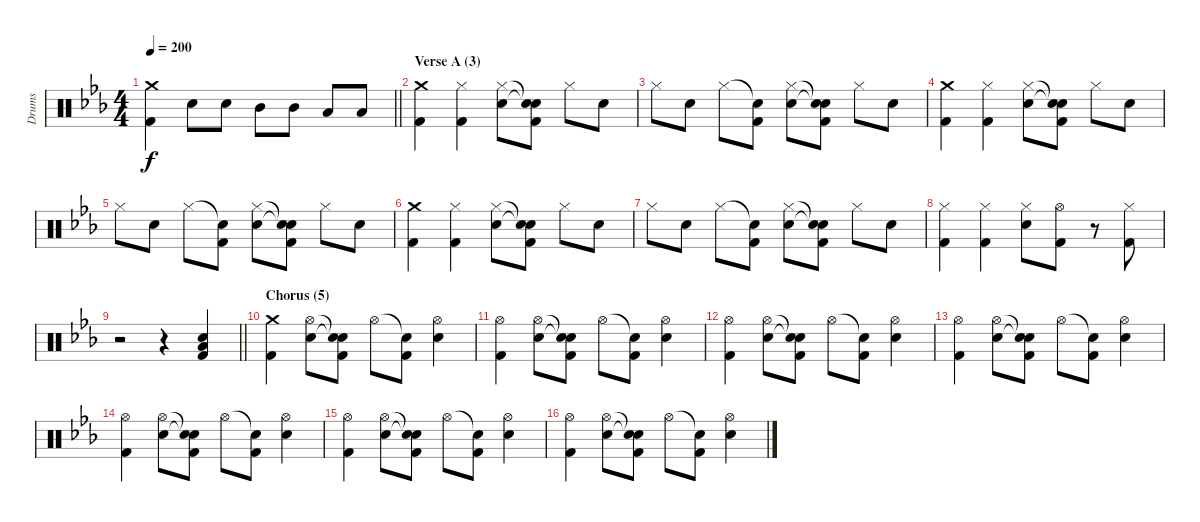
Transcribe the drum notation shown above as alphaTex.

\track ("Drums" "Drums") {instrument percussion}
\staff {score}
\articulation defaults
\ts (4 4)
\tempo 200
\clef neutral
\barLineRight lightlight
\ks cminor
("Crash medium (hit)" "Kick (hit) 2").4{dy f} "Electric Snare (hit)".8 "Electric Snare (hit)".8 "Mid Tom (hit)".8 "Mid Tom (hit)".8 "Low Floor Tom (hit)".8 "Low Floor Tom (hit)".8 |
\section ("" "Verse A (3)")
("Crash medium (hit)" "Kick (hit) 2").4 ("Hi-Hat (closed)" "Kick (hit) 2").4 ("Hi-Hat (closed)" "Electric Snare (hit)").8 ("Snare (hit)"{t} "Snare (hit)"{t} "Kick (hit) 2").8 "Hi-Hat (closed)".8 "Electric Snare (hit)".8 |
"Hi-Hat (closed)".8 "Electric Snare (hit)".8 "Hi-Hat (closed)".8 ("Snare (hit)"{t} "Kick (hit) 2").8 ("Hi-Hat (closed)" "Electric Snare (hit)").8 ("Snare (hit)"{t} "Snare (hit)"{t} "Kick (hit) 2").8 "Hi-Hat (closed)".8 "Electric Snare (hit)".8 |
("Crash medium (hit)" "Kick (hit) 2").4 ("Hi-Hat (closed)" "Kick (hit) 2").4 ("Hi-Hat (closed)" "Electric Snare (hit)").8 ("Snare (hit)"{t} "Snare (hit)"{t} "Kick (hit) 2").8 "Hi-Hat (closed)".8 "Electric Snare (hit)".8 |
"Hi-Hat (closed)".8 "Electric Snare (hit)".8 "Hi-Hat (closed)".8 ("Snare (hit)"{t} "Kick (hit) 2").8 ("Hi-Hat (closed)" "Electric Snare (hit)").8 ("Snare (hit)"{t} "Snare (hit)"{t} "Kick (hit) 2").8 "Hi-Hat (closed)".8 "Electric Snare (hit)".8 |
("Crash medium (hit)" "Kick (hit) 2").4 ("Hi-Hat (closed)" "Kick (hit) 2").4 ("Hi-Hat (closed)" "Electric Snare (hit)").8 ("Snare (hit)"{t} "Snare (hit)"{t} "Kick (hit) 2").8 "Hi-Hat (closed)".8 "Electric Snare (hit)".8 |
"Hi-Hat (closed)".8 "Electric Snare (hit)".8 "Hi-Hat (closed)".8 ("Snare (hit)"{t} "Kick (hit) 2").8 ("Hi-Hat (closed)" "Electric Snare (hit)").8 ("Snare (hit)"{t} "Snare (hit)"{t} "Kick (hit) 2").8 "Hi-Hat (closed)".8 "Electric Snare (hit)".8 |
("Hi-Hat (closed)" "Kick (hit) 2").4 ("Hi-Hat (closed)" "Kick (hit) 2").4 ("Hi-Hat (closed)" "Electric Snare (hit)").8 ("Hi-Hat (open)" "Kick (hit) 2").8 r.8 ("Hi-Hat (closed)" "Kick (hit) 2").8 |
\barLineRight lightlight
r.2 r.4 ("Electric Snare (hit)" "Low Floor Tom (hit)" "Kick (hit) 2").4 |
\section ("" "Chorus (5)")
("Crash medium (hit)" "Kick (hit) 2").4 ("Hi-Hat (open)" "Electric Snare (hit)").8 ("Snare (hit)"{t} "Snare (hit)"{t} "Kick (hit) 2").8 "Hi-Hat (open)".8 ("Snare (hit)"{t} "Kick (hit) 2").8 ("Hi-Hat (open)" "Electric Snare (hit)").4 |
("Hi-Hat (open)" "Kick (hit) 2").4 ("Hi-Hat (open)" "Electric Snare (hit)").8 ("Snare (hit)"{t} "Snare (hit)"{t} "Kick (hit) 2").8 "Hi-Hat (open)".8 ("Snare (hit)"{t} "Kick (hit) 2").8 ("Hi-Hat (open)" "Electric Snare (hit)").4 |
("Hi-Hat (open)" "Kick (hit) 2").4 ("Hi-Hat (open)" "Electric Snare (hit)").8 ("Snare (hit)"{t} "Snare (hit)"{t} "Kick (hit) 2").8 "Hi-Hat (open)".8 ("Snare (hit)"{t} "Kick (hit) 2").8 ("Hi-Hat (open)" "Electric Snare (hit)").4 |
("Hi-Hat (open)" "Kick (hit) 2").4 ("Hi-Hat (open)" "Electric Snare (hit)").8 ("Snare (hit)"{t} "Snare (hit)"{t} "Kick (hit) 2").8 "Hi-Hat (open)".8 ("Snare (hit)"{t} "Kick (hit) 2").8 ("Hi-Hat (open)" "Electric Snare (hit)").4 |
("Hi-Hat (open)" "Kick (hit) 2").4 ("Hi-Hat (open)" "Electric Snare (hit)").8 ("Snare (hit)"{t} "Snare (hit)"{t} "Kick (hit) 2").8 "Hi-Hat (open)".8 ("Snare (hit)"{t} "Kick (hit) 2").8 ("Hi-Hat (open)" "Electric Snare (hit)").4 |
("Hi-Hat (open)" "Kick (hit) 2").4 ("Hi-Hat (open)" "Electric Snare (hit)").8 ("Snare (hit)"{t} "Snare (hit)"{t} "Kick (hit) 2").8 "Hi-Hat (open)".8 ("Snare (hit)"{t} "Kick (hit) 2").8 ("Hi-Hat (open)" "Electric Snare (hit)").4 |
("Hi-Hat (open)" "Kick (hit) 2").4 ("Hi-Hat (open)" "Electric Snare (hit)").8 ("Snare (hit)"{t} "Snare (hit)"{t} "Kick (hit) 2").8 "Hi-Hat (open)".8 ("Snare (hit)"{t} "Kick (hit) 2").8 ("Hi-Hat (open)" "Electric Snare (hit)").4
